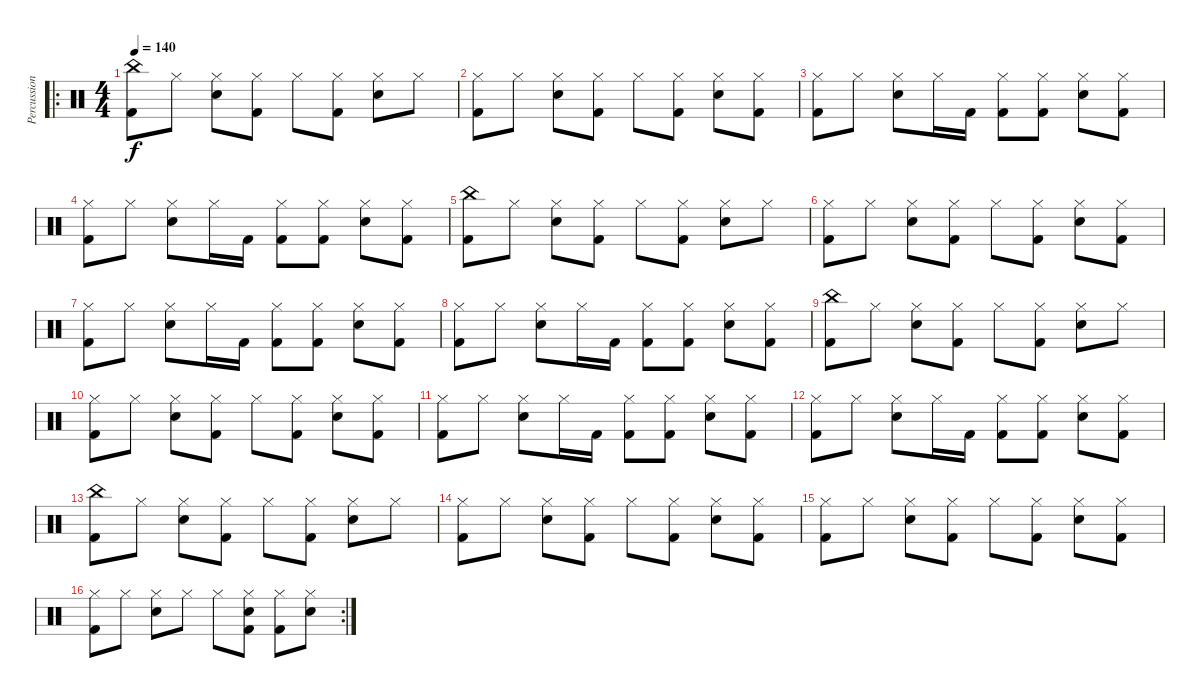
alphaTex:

\track ("Percussion" "Percussion") {instrument percussion}
\staff {score}
\articulation defaults
\ro
\ts (4 4)
\tempo 140
\clef neutral
\ks c
("China (hit)" "Kick (hit) 2").8{dy f} "Hi-Hat (closed)".8 ("Hi-Hat (closed)" "Electric Snare (hit)").8 ("Hi-Hat (closed)" "Kick (hit) 2").8 "Hi-Hat (closed)".8 ("Hi-Hat (closed)" "Kick (hit) 2").8 ("Hi-Hat (closed)" "Electric Snare (hit)").8 "Hi-Hat (closed)".8 |
("Hi-Hat (closed)" "Kick (hit) 2").8 "Hi-Hat (closed)".8 ("Hi-Hat (closed)" "Electric Snare (hit)").8 ("Hi-Hat (closed)" "Kick (hit) 2").8 "Hi-Hat (closed)".8 ("Hi-Hat (closed)" "Kick (hit) 2").8 ("Hi-Hat (closed)" "Electric Snare (hit)").8 ("Hi-Hat (closed)" "Kick (hit) 2").8 |
("Hi-Hat (closed)" "Kick (hit) 2").8 "Hi-Hat (closed)".8 ("Hi-Hat (closed)" "Electric Snare (hit)").8 "Hi-Hat (closed)".16 "Kick (hit) 2".16 ("Hi-Hat (closed)" "Kick (hit) 2").8 ("Hi-Hat (closed)" "Kick (hit) 2").8 ("Hi-Hat (closed)" "Electric Snare (hit)").8 ("Hi-Hat (closed)" "Kick (hit) 2").8 |
("Hi-Hat (closed)" "Kick (hit) 2").8 "Hi-Hat (closed)".8 ("Hi-Hat (closed)" "Electric Snare (hit)").8 "Hi-Hat (closed)".16 "Kick (hit) 2".16 ("Hi-Hat (closed)" "Kick (hit) 2").8 ("Hi-Hat (closed)" "Kick (hit) 2").8 ("Hi-Hat (closed)" "Electric Snare (hit)").8 ("Hi-Hat (closed)" "Kick (hit) 2").8 |
("China (hit)" "Kick (hit) 2").8 "Hi-Hat (closed)".8 ("Hi-Hat (closed)" "Electric Snare (hit)").8 ("Hi-Hat (closed)" "Kick (hit) 2").8 "Hi-Hat (closed)".8 ("Hi-Hat (closed)" "Kick (hit) 2").8 ("Hi-Hat (closed)" "Electric Snare (hit)").8 "Hi-Hat (closed)".8 |
("Hi-Hat (closed)" "Kick (hit) 2").8 "Hi-Hat (closed)".8 ("Hi-Hat (closed)" "Electric Snare (hit)").8 ("Hi-Hat (closed)" "Kick (hit) 2").8 "Hi-Hat (closed)".8 ("Hi-Hat (closed)" "Kick (hit) 2").8 ("Hi-Hat (closed)" "Electric Snare (hit)").8 ("Hi-Hat (closed)" "Kick (hit) 2").8 |
("Hi-Hat (closed)" "Kick (hit) 2").8 "Hi-Hat (closed)".8 ("Hi-Hat (closed)" "Electric Snare (hit)").8 "Hi-Hat (closed)".16 "Kick (hit) 2".16 ("Hi-Hat (closed)" "Kick (hit) 2").8 ("Hi-Hat (closed)" "Kick (hit) 2").8 ("Hi-Hat (closed)" "Electric Snare (hit)").8 ("Hi-Hat (closed)" "Kick (hit) 2").8 |
("Hi-Hat (closed)" "Kick (hit) 2").8 "Hi-Hat (closed)".8 ("Hi-Hat (closed)" "Electric Snare (hit)").8 "Hi-Hat (closed)".16 "Kick (hit) 2".16 ("Hi-Hat (closed)" "Kick (hit) 2").8 ("Hi-Hat (closed)" "Kick (hit) 2").8 ("Hi-Hat (closed)" "Electric Snare (hit)").8 ("Hi-Hat (closed)" "Kick (hit) 2").8 |
("China (hit)" "Kick (hit) 2").8 "Hi-Hat (closed)".8 ("Hi-Hat (closed)" "Electric Snare (hit)").8 ("Hi-Hat (closed)" "Kick (hit) 2").8 "Hi-Hat (closed)".8 ("Hi-Hat (closed)" "Kick (hit) 2").8 ("Hi-Hat (closed)" "Electric Snare (hit)").8 "Hi-Hat (closed)".8 |
("Hi-Hat (closed)" "Kick (hit) 2").8 "Hi-Hat (closed)".8 ("Hi-Hat (closed)" "Electric Snare (hit)").8 ("Hi-Hat (closed)" "Kick (hit) 2").8 "Hi-Hat (closed)".8 ("Hi-Hat (closed)" "Kick (hit) 2").8 ("Hi-Hat (closed)" "Electric Snare (hit)").8 ("Hi-Hat (closed)" "Kick (hit) 2").8 |
("Hi-Hat (closed)" "Kick (hit) 2").8 "Hi-Hat (closed)".8 ("Hi-Hat (closed)" "Electric Snare (hit)").8 "Hi-Hat (closed)".16 "Kick (hit) 2".16 ("Hi-Hat (closed)" "Kick (hit) 2").8 ("Hi-Hat (closed)" "Kick (hit) 2").8 ("Hi-Hat (closed)" "Electric Snare (hit)").8 ("Hi-Hat (closed)" "Kick (hit) 2").8 |
("Hi-Hat (closed)" "Kick (hit) 2").8 "Hi-Hat (closed)".8 ("Hi-Hat (closed)" "Electric Snare (hit)").8 "Hi-Hat (closed)".16 "Kick (hit) 2".16 ("Hi-Hat (closed)" "Kick (hit) 2").8 ("Hi-Hat (closed)" "Kick (hit) 2").8 ("Hi-Hat (closed)" "Electric Snare (hit)").8 ("Hi-Hat (closed)" "Kick (hit) 2").8 |
("China (hit)" "Kick (hit) 2").8 "Hi-Hat (closed)".8 ("Hi-Hat (closed)" "Electric Snare (hit)").8 ("Hi-Hat (closed)" "Kick (hit) 2").8 "Hi-Hat (closed)".8 ("Hi-Hat (closed)" "Kick (hit) 2").8 ("Hi-Hat (closed)" "Electric Snare (hit)").8 "Hi-Hat (closed)".8 |
("Hi-Hat (closed)" "Kick (hit) 2").8 "Hi-Hat (closed)".8 ("Hi-Hat (closed)" "Electric Snare (hit)").8 ("Hi-Hat (closed)" "Kick (hit) 2").8 "Hi-Hat (closed)".8 ("Hi-Hat (closed)" "Kick (hit) 2").8 ("Hi-Hat (closed)" "Electric Snare (hit)").8 ("Hi-Hat (closed)" "Kick (hit) 2").8 |
("Hi-Hat (closed)" "Kick (hit) 2").8 "Hi-Hat (closed)".8 ("Hi-Hat (closed)" "Electric Snare (hit)").8 ("Hi-Hat (closed)" "Kick (hit) 2").8 "Hi-Hat (closed)".8 ("Hi-Hat (closed)" "Kick (hit) 2").8 ("Hi-Hat (closed)" "Electric Snare (hit)").8 ("Hi-Hat (closed)" "Kick (hit) 2").8 |
\rc 2
("Hi-Hat (closed)" "Kick (hit) 2").8 "Hi-Hat (closed)".8 ("Hi-Hat (closed)" "Electric Snare (hit)").8 "Hi-Hat (closed)".8 "Hi-Hat (closed)".8 ("Hi-Hat (closed)" "Electric Snare (hit)" "Kick (hit) 2").8 ("Hi-Hat (closed)" "Kick (hit) 2").8 ("Hi-Hat (closed)" "Electric Snare (hit)").8
